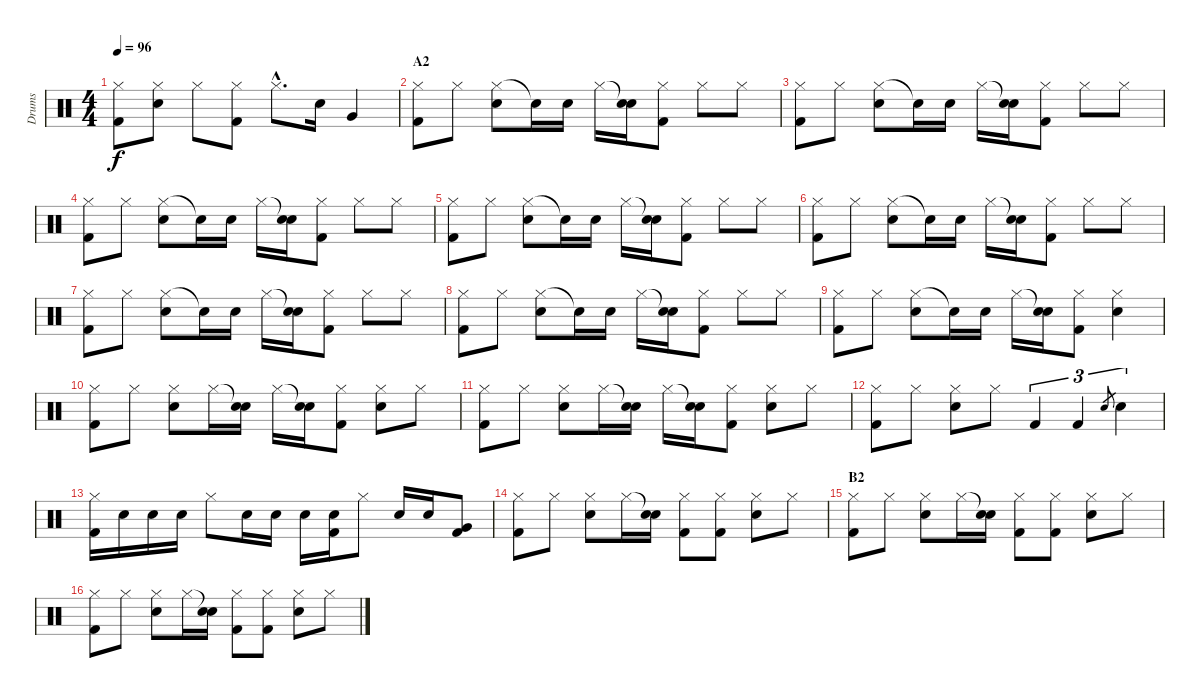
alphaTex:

\track ("Drums" "Drums") {instrument percussion}
\staff {score}
\articulation defaults
\ts (4 4)
\tempo 96
\clef neutral
\ks c
("Hi-Hat (closed)" "Kick (hit) 2").8{dy f} ("Hi-Hat (closed)" "Snare (hit) 2").8 "Hi-Hat (closed)".8 ("Hi-Hat (closed)" "Kick (hit) 2").8 "Hi-Hat (closed)"{hac}.8{d} "Snare (hit) 2".16 "Very Low Tom (hit)".4 |
\section ("" "A2")
("Hi-Hat (closed)" "Kick (hit) 2").8 "Hi-Hat (closed)".8 ("Hi-Hat (closed)" "Snare (hit) 2").8 "Snare (hit)"{t}.16 "Snare (hit) 2".16 "Hi-Hat (closed)".16 ("Snare (hit)"{t} "Snare (hit) 2").16 ("Hi-Hat (closed)" "Kick (hit) 2").8 "Hi-Hat (closed)".8 "Hi-Hat (closed)".8 |
("Hi-Hat (closed)" "Kick (hit) 2").8 "Hi-Hat (closed)".8 ("Hi-Hat (closed)" "Snare (hit) 2").8 "Snare (hit)"{t}.16 "Snare (hit) 2".16 "Hi-Hat (closed)".16 ("Snare (hit)"{t} "Snare (hit) 2").16 ("Hi-Hat (closed)" "Kick (hit) 2").8 "Hi-Hat (closed)".8 "Hi-Hat (closed)".8 |
("Hi-Hat (closed)" "Kick (hit) 2").8 "Hi-Hat (closed)".8 ("Hi-Hat (closed)" "Snare (hit) 2").8 "Snare (hit)"{t}.16 "Snare (hit) 2".16 "Hi-Hat (closed)".16 ("Snare (hit)"{t} "Snare (hit) 2").16 ("Hi-Hat (closed)" "Kick (hit) 2").8 "Hi-Hat (closed)".8 "Hi-Hat (closed)".8 |
("Hi-Hat (closed)" "Kick (hit) 2").8 "Hi-Hat (closed)".8 ("Hi-Hat (closed)" "Snare (hit) 2").8 "Snare (hit)"{t}.16 "Snare (hit) 2".16 "Hi-Hat (closed)".16 ("Snare (hit)"{t} "Snare (hit) 2").16 ("Hi-Hat (closed)" "Kick (hit) 2").8 "Hi-Hat (closed)".8 "Hi-Hat (closed)".8 |
("Hi-Hat (closed)" "Kick (hit) 2").8 "Hi-Hat (closed)".8 ("Hi-Hat (closed)" "Snare (hit) 2").8 "Snare (hit)"{t}.16 "Snare (hit) 2".16 "Hi-Hat (closed)".16 ("Snare (hit)"{t} "Snare (hit) 2").16 ("Hi-Hat (closed)" "Kick (hit) 2").8 "Hi-Hat (closed)".8 "Hi-Hat (closed)".8 |
("Hi-Hat (closed)" "Kick (hit) 2").8 "Hi-Hat (closed)".8 ("Hi-Hat (closed)" "Snare (hit) 2").8 "Snare (hit)"{t}.16 "Snare (hit) 2".16 "Hi-Hat (closed)".16 ("Snare (hit)"{t} "Snare (hit) 2").16 ("Hi-Hat (closed)" "Kick (hit) 2").8 "Hi-Hat (closed)".8 "Hi-Hat (closed)".8 |
("Hi-Hat (closed)" "Kick (hit) 2").8 "Hi-Hat (closed)".8 ("Hi-Hat (closed)" "Snare (hit) 2").8 "Snare (hit)"{t}.16 "Snare (hit) 2".16 "Hi-Hat (closed)".16 ("Snare (hit)"{t} "Snare (hit) 2").16 ("Hi-Hat (closed)" "Kick (hit) 2").8 "Hi-Hat (closed)".8 "Hi-Hat (closed)".8 |
("Hi-Hat (closed)" "Kick (hit) 2").8 "Hi-Hat (closed)".8 ("Hi-Hat (closed)" "Snare (hit) 2").8 "Snare (hit)"{t}.16 "Snare (hit) 2".16 "Hi-Hat (closed)".16 ("Snare (hit)"{t} "Snare (hit) 2").16 ("Hi-Hat (closed)" "Kick (hit) 2").8 ("Hi-Hat (closed)" "Snare (hit) 2").4 |
("Hi-Hat (closed)" "Kick (hit) 2").8 "Hi-Hat (closed)".8 ("Hi-Hat (closed)" "Snare (hit) 2").8 "Hi-Hat (closed)".16 ("Snare (hit)"{t} "Snare (hit) 2").16 "Hi-Hat (closed)".16 ("Snare (hit)"{t} "Snare (hit) 2").16 ("Hi-Hat (closed)" "Kick (hit) 2").8 ("Hi-Hat (closed)" "Snare (hit) 2").8 "Hi-Hat (closed)".8 |
("Hi-Hat (closed)" "Kick (hit) 2").8 "Hi-Hat (closed)".8 ("Hi-Hat (closed)" "Snare (hit) 2").8 "Hi-Hat (closed)".16 ("Snare (hit)"{t} "Snare (hit) 2").16 "Hi-Hat (closed)".16 ("Snare (hit)"{t} "Snare (hit) 2").16 ("Hi-Hat (closed)" "Kick (hit) 2").8 ("Hi-Hat (closed)" "Snare (hit) 2").8 "Hi-Hat (closed)".8 |
("Hi-Hat (closed)" "Kick (hit) 2").8 "Hi-Hat (closed)".8 ("Hi-Hat (closed)" "Snare (hit) 2").8 "Hi-Hat (closed)".8 "Kick (hit) 2".4{tu (3 2)} "Kick (hit) 2".4{tu (3 2)} "Snare (hit) 2".8{gr} "Snare (hit) 2".4{tu (3 2)} |
("Hi-Hat (closed)" "Kick (hit) 2").16 "Snare (hit) 2".16 "Snare (hit) 2".16 "Snare (hit) 2".16 "Hi-Hat (closed)".8 "Snare (hit) 2".16 "Snare (hit) 2".16 "Snare (hit) 2".16 ("Snare (hit) 2" "Kick (hit) 2").16 "Hi-Hat (closed)".8 "Snare (hit) 2".16 "Snare (hit) 2".16 ("Very Low Tom (hit)" "Kick (hit) 2").8 |
("Hi-Hat (closed)" "Kick (hit) 2").8 "Hi-Hat (closed)".8 ("Hi-Hat (closed)" "Snare (hit) 2").8 "Hi-Hat (closed)".16 ("Snare (hit)"{t} "Snare (hit) 2").16 ("Hi-Hat (closed)" "Kick (hit) 2").8 ("Hi-Hat (closed)" "Kick (hit) 2").8 ("Hi-Hat (closed)" "Snare (hit) 2").8 "Hi-Hat (closed)".8 |
\section ("" "B2")
("Hi-Hat (closed)" "Kick (hit) 2").8 "Hi-Hat (closed)".8 ("Hi-Hat (closed)" "Snare (hit) 2").8 "Hi-Hat (closed)".16 ("Snare (hit)"{t} "Snare (hit) 2").16 ("Hi-Hat (closed)" "Kick (hit) 2").8 ("Hi-Hat (closed)" "Kick (hit) 2").8 ("Hi-Hat (closed)" "Snare (hit) 2").8 "Hi-Hat (closed)".8 |
("Hi-Hat (closed)" "Kick (hit) 2").8 "Hi-Hat (closed)".8 ("Hi-Hat (closed)" "Snare (hit) 2").8 "Hi-Hat (closed)".16 ("Snare (hit)"{t} "Snare (hit) 2").16 ("Hi-Hat (closed)" "Kick (hit) 2").8 ("Hi-Hat (closed)" "Kick (hit) 2").8 ("Hi-Hat (closed)" "Snare (hit) 2").8 "Hi-Hat (closed)".8
